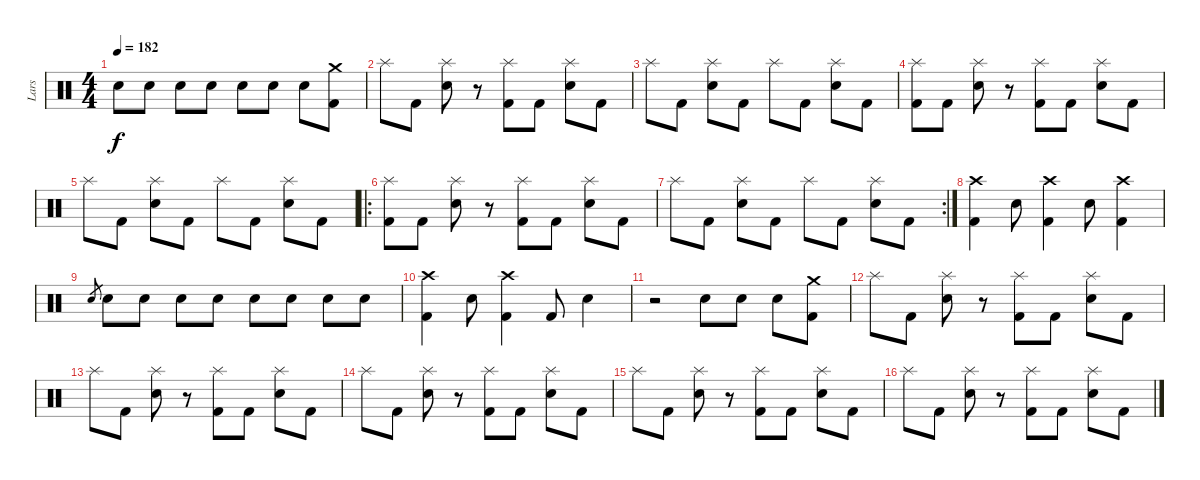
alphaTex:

\track ("Lars" "Lars") {instrument percussion}
\staff {score}
\articulation defaults
\ts (4 4)
\tempo 182
\clef neutral
\ks c "Snare (hit) 2".8{dy f} "Snare (hit) 2".8 "Snare (hit) 2".8 "Snare (hit) 2".8 "Snare (hit) 2".8 "Snare (hit) 2".8 "Snare (hit) 2".8
("Crash medium (hit)" "Kick (hit) 2").8 |
"Splash (hit)".8 "Kick (hit) 2".8 ("Splash (hit)" "Snare (hit) 2").8 r.8 ("Splash (hit)" "Kick (hit) 2").8 "Kick (hit) 2".8 ("Splash (hit)" "Snare (hit) 2").8 "Kick (hit) 2".8 |
"Splash (hit)".8 "Kick (hit) 2".8 ("Splash (hit)" "Snare (hit) 2").8 "Kick (hit) 2".8 "Splash (hit)".8 "Kick (hit) 2".8 ("Splash (hit)" "Snare (hit) 2").8 "Kick (hit) 2".8 |
("Splash (hit)" "Kick (hit) 2").8 "Kick (hit) 2".8 ("Splash (hit)" "Snare (hit) 2").8 r.8 ("Splash (hit)" "Kick (hit) 2").8 "Kick (hit) 2".8 ("Splash (hit)" "Snare (hit) 2").8 "Kick (hit) 2".8 |
"Splash (hit)".8 "Kick (hit) 2".8 ("Splash (hit)" "Snare (hit) 2").8 "Kick (hit) 2".8 "Splash (hit)".8 "Kick (hit) 2".8 ("Splash (hit)" "Snare (hit) 2").8 "Kick (hit) 2".8 |
\ro
("Splash (hit)" "Kick (hit) 2").8 "Kick (hit) 2".8 ("Splash (hit)" "Snare (hit) 2").8 r.8 ("Splash (hit)" "Kick (hit) 2").8 "Kick (hit) 2".8 ("Splash (hit)" "Snare (hit) 2").8 "Kick (hit) 2".8 |
\rc 2 "Splash (hit)".8 "Kick (hit) 2".8
("Splash (hit)" "Snare (hit) 2").8 "Kick (hit) 2".8 "Splash (hit)".8 "Kick (hit) 2".8 ("Splash (hit)" "Snare (hit) 2").8 "Kick (hit) 2".8 |
("Crash high (hit)" "Kick (hit) 2").4 "Snare (hit) 2".8 ("Crash high (hit)" "Kick (hit) 2").4 "Snare (hit) 2".8 ("Crash high (hit)" "Kick (hit) 2").4 |
"Snare (hit) 2".8{gr} "Snare (hit) 2".8 "Snare (hit) 2".8 "Snare (hit) 2".8 "Snare (hit) 2".8 "Snare (hit) 2".8 "Snare (hit) 2".8 "Snare (hit) 2".8 "Snare (hit) 2".8 |
("Crash high (hit)" "Kick (hit) 2").4 "Snare (hit) 2".8 ("Crash high (hit)" "Kick (hit) 2").4 "Kick (hit) 2".8 "Snare (hit) 2".4 |
r.2 "Snare (hit) 2".8 "Snare (hit) 2".8 "Snare (hit) 2".8 ("Crash medium (hit)" "Kick (hit) 2").8 |
"Splash (hit)".8 "Kick (hit) 2".8 ("Splash (hit)" "Snare (hit) 2").8 r.8 ("Splash (hit)" "Kick (hit) 2").8 "Kick (hit) 2".8 ("Splash (hit)" "Snare (hit) 2").8 "Kick (hit) 2".8 |
"Splash (hit)".8 "Kick (hit) 2".8 ("Splash (hit)" "Snare (hit) 2").8 r.8 ("Splash (hit)" "Kick (hit) 2").8 "Kick (hit) 2".8 ("Splash (hit)" "Snare (hit) 2").8 "Kick (hit) 2".8 |
"Splash (hit)".8 "Kick (hit) 2".8 ("Splash (hit)" "Snare (hit) 2").8 r.8 ("Splash (hit)" "Kick (hit) 2").8 "Kick (hit) 2".8 ("Splash (hit)" "Snare (hit) 2").8 "Kick (hit) 2".8 |
"Splash (hit)".8 "Kick (hit) 2".8 ("Splash (hit)" "Snare (hit) 2").8 r.8 ("Splash (hit)" "Kick (hit) 2").8 "Kick (hit) 2".8 ("Splash (hit)" "Snare (hit) 2").8 "Kick (hit) 2".8 |
"Splash (hit)".8 "Kick (hit) 2".8 ("Splash (hit)" "Snare (hit) 2").8 r.8 ("Splash (hit)" "Kick (hit) 2").8 "Kick (hit) 2".8 ("Splash (hit)" "Snare (hit) 2").8 "Kick (hit) 2".8
